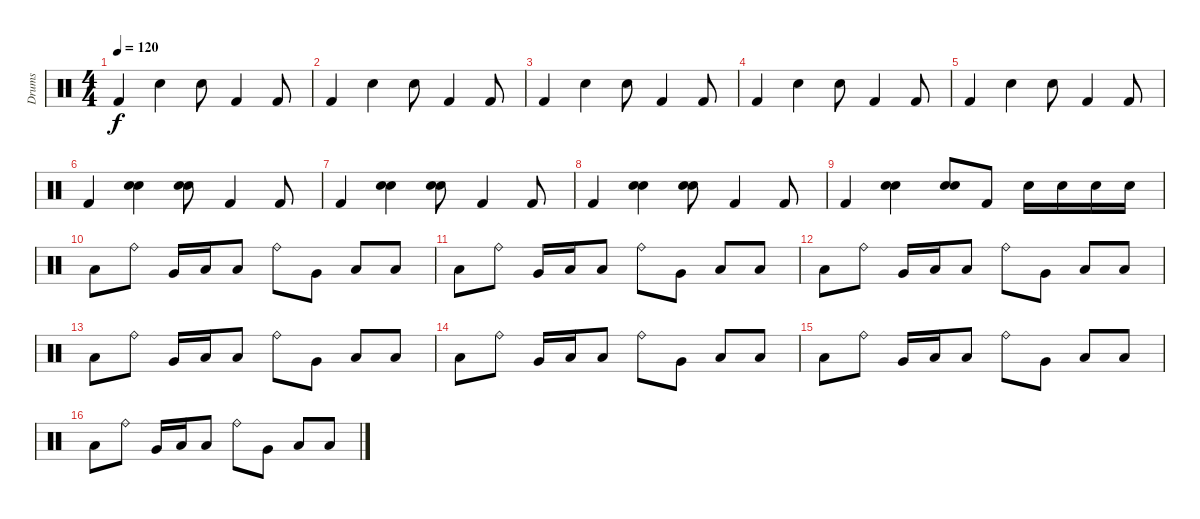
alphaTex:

\track ("Drums" "Drums") {instrument percussion}
\staff {score}
\articulation defaults
\ts (4 4)
\tempo 120
\clef neutral
\ks c "Kick (hit) 2".4{dy f} "Snare (hit) 2".4 "Snare (hit) 2".8 "Kick (hit) 2".4 "Kick (hit) 2".8
|
"Kick (hit) 2".4 "Snare (hit) 2".4 "Snare (hit) 2".8 "Kick (hit) 2".4 "Kick (hit) 2".8 |
"Kick (hit) 2".4 "Snare (hit) 2".4 "Snare (hit) 2".8 "Kick (hit) 2".4 "Kick (hit) 2".8 |
"Kick (hit) 2".4 "Snare (hit) 2".4 "Snare (hit) 2".8 "Kick (hit) 2".4 "Kick (hit) 2".8 |
"Kick (hit) 2".4 "Snare (hit) 2".4 "Snare (hit) 2".8 "Kick (hit) 2".4 "Kick (hit) 2".8 |
"Kick (hit) 2".4 ("Snare (hit) 2" "Snare (hit) 2").4 ("Snare (hit) 2" "Snare (hit) 2").8 "Kick (hit) 2".4 "Kick (hit) 2".8 |
"Kick (hit) 2".4 ("Snare (hit) 2" "Snare (hit) 2").4 ("Snare (hit) 2" "Snare (hit) 2").8 "Kick (hit) 2".4 "Kick (hit) 2".8 |
"Kick (hit) 2".4 ("Snare (hit) 2" "Snare (hit) 2").4 ("Snare (hit) 2" "Snare (hit) 2").8 "Kick (hit) 2".4 "Kick (hit) 2".8 |
"Kick (hit) 2".4 ("Snare (hit) 2" "Snare (hit) 2").4 ("Snare (hit) 2" "Snare (hit) 2").8 "Kick (hit) 2".8 "Snare (hit) 2".16 "Snare (hit) 2".16 "Snare (hit) 2".16 "Snare (hit) 2".16 |
"Low Tom (hit)".8 "Ride (bell)".8 "Very Low Tom (hit)".16 "Low Floor Tom (hit)".16 "Low Tom (hit)".8 "Ride (bell)".8 "Very Low Tom (hit)".8 "Low Tom (hit)".8 "Low Floor Tom (hit)".8 |
"Low Tom (hit)".8 "Ride (bell)".8 "Very Low Tom (hit)".16 "Low Floor Tom (hit)".16 "Low Tom (hit)".8 "Ride (bell)".8 "Very Low Tom (hit)".8 "Low Tom (hit)".8 "Low Floor Tom (hit)".8 |
"Low Tom (hit)".8 "Ride (bell)".8 "Very Low Tom (hit)".16 "Low Floor Tom (hit)".16 "Low Tom (hit)".8 "Ride (bell)".8 "Very Low Tom (hit)".8 "Low Tom (hit)".8 "Low Floor Tom (hit)".8 |
"Low Tom (hit)".8 "Ride (bell)".8 "Very Low Tom (hit)".16 "Low Floor Tom (hit)".16 "Low Tom (hit)".8 "Ride (bell)".8 "Very Low Tom (hit)".8 "Low Tom (hit)".8 "Low Floor Tom (hit)".8 |
"Low Tom (hit)".8 "Ride (bell)".8 "Very Low Tom (hit)".16 "Low Floor Tom (hit)".16 "Low Tom (hit)".8 "Ride (bell)".8 "Very Low Tom (hit)".8 "Low Tom (hit)".8 "Low Floor Tom (hit)".8 |
"Low Tom (hit)".8 "Ride (bell)".8 "Very Low Tom (hit)".16 "Low Floor Tom (hit)".16 "Low Tom (hit)".8 "Ride (bell)".8 "Very Low Tom (hit)".8 "Low Tom (hit)".8 "Low Floor Tom (hit)".8 |
"Low Tom (hit)".8 "Ride (bell)".8 "Very Low Tom (hit)".16 "Low Floor Tom (hit)".16 "Low Tom (hit)".8 "Ride (bell)".8 "Very Low Tom (hit)".8 "Low Tom (hit)".8 "Low Floor Tom (hit)".8
